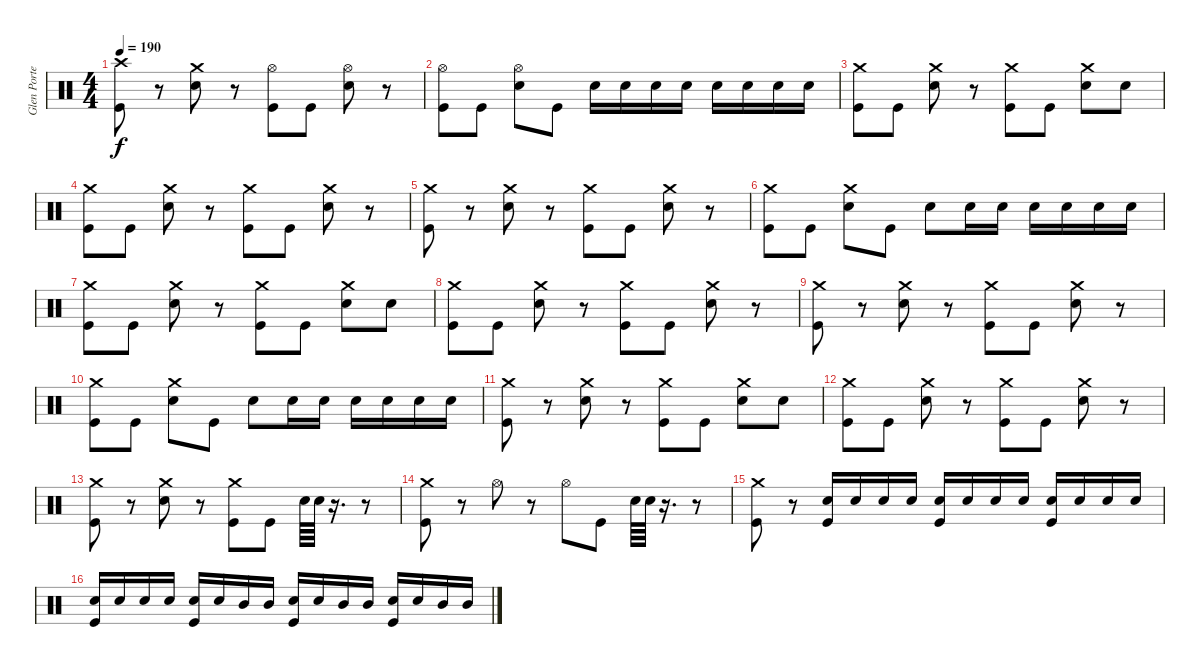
\track ("Glen Porter" "Glen Porte") {instrument percussion}
\staff {score}
\articulation defaults
\ts (4 4)
\tempo 190
\clef neutral
\ks c
("Crash high (hit)" "Kick (hit)").8{dy f} r.8 ("Crash medium (hit)" "Snare (hit) 2").8 r.8 ("Hi-Hat (open)" "Kick (hit)").8 "Kick (hit)".8 ("Hi-Hat (open)" "Snare (hit) 2").8 r.8 |
("Hi-Hat (open)" "Kick (hit)").8 "Kick (hit)".8 ("Hi-Hat (open)" "Snare (hit) 2").8 "Kick (hit)".8 "Snare (hit) 2".16 "Snare (hit) 2".16 "Snare (hit) 2".16 "Snare (hit) 2".16 "Snare (hit) 2".16 "Snare (hit) 2".16 "Snare (hit) 2".16 "Snare (hit) 2".16 |
("Crash medium (hit)" "Kick (hit)").8 "Kick (hit)".8 ("Crash medium (hit)" "Snare (hit) 2").8 r.8 ("Crash medium (hit)" "Kick (hit)").8 "Kick (hit)".8 ("Crash medium (hit)" "Snare (hit) 2").8 "Snare (hit) 2".8 |
("Crash medium (hit)" "Kick (hit)").8 "Kick (hit)".8 ("Crash medium (hit)" "Snare (hit) 2").8 r.8 ("Crash medium (hit)" "Kick (hit)").8 "Kick (hit)".8 ("Crash medium (hit)" "Snare (hit) 2").8 r.8 |
("Crash medium (hit)" "Kick (hit)").8 r.8 ("Crash medium (hit)" "Snare (hit) 2").8 r.8 ("Crash medium (hit)" "Kick (hit)").8 "Kick (hit)".8 ("Crash medium (hit)" "Snare (hit) 2").8 r.8 |
("Crash medium (hit)" "Kick (hit)").8 "Kick (hit)".8 ("Crash medium (hit)" "Snare (hit) 2").8 "Kick (hit)".8 "Snare (hit) 2".8 "Snare (hit) 2".16 "Snare (hit) 2".16 "Snare (hit) 2".16 "Snare (hit) 2".16 "Snare (hit) 2".16 "Snare (hit) 2".16 |
("Crash medium (hit)" "Kick (hit)").8 "Kick (hit)".8 ("Crash medium (hit)" "Snare (hit) 2").8 r.8 ("Crash medium (hit)" "Kick (hit)").8 "Kick (hit)".8 ("Crash medium (hit)" "Snare (hit) 2").8 "Snare (hit) 2".8 |
("Crash medium (hit)" "Kick (hit)").8 "Kick (hit)".8 ("Crash medium (hit)" "Snare (hit) 2").8 r.8 ("Crash medium (hit)" "Kick (hit)").8 "Kick (hit)".8 ("Crash medium (hit)" "Snare (hit) 2").8 r.8 |
("Crash medium (hit)" "Kick (hit)").8 r.8 ("Crash medium (hit)" "Snare (hit) 2").8 r.8 ("Crash medium (hit)" "Kick (hit)").8 "Kick (hit)".8 ("Crash medium (hit)" "Snare (hit) 2").8 r.8 |
("Crash medium (hit)" "Kick (hit)").8 "Kick (hit)".8 ("Crash medium (hit)" "Snare (hit) 2").8 "Kick (hit)".8 "Snare (hit) 2".8 "Snare (hit) 2".16 "Snare (hit) 2".16 "Snare (hit) 2".16 "Snare (hit) 2".16 "Snare (hit) 2".16 "Snare (hit) 2".16 |
("Crash medium (hit)" "Kick (hit)").8 r.8 ("Crash medium (hit)" "Snare (hit) 2").8 r.8 ("Crash medium (hit)" "Kick (hit)").8 "Kick (hit)".8 ("Crash medium (hit)" "Snare (hit) 2").8 "Snare (hit) 2".8 |
("Crash medium (hit)" "Kick (hit)").8 "Kick (hit)".8 ("Crash medium (hit)" "Snare (hit) 2").8 r.8 ("Crash medium (hit)" "Kick (hit)").8 "Kick (hit)".8 ("Crash medium (hit)" "Snare (hit) 2").8 r.8 |
("Crash medium (hit)" "Kick (hit)").8 r.8 ("Crash medium (hit)" "Snare (hit) 2").8 r.8 ("Crash medium (hit)" "Kick (hit)").8 "Kick (hit)".8 "Snare (hit) 2".64 "Snare (hit) 2".64 r.16{d} r.8 |
("Crash medium (hit)" "Kick (hit)").8 r.8 "Hi-Hat (open)".8 r.8 "Hi-Hat (open)".8 "Kick (hit)".8 "Snare (hit) 2".64 "Snare (hit) 2".64 r.16{d} r.8 |
("Crash medium (hit)" "Kick (hit)").8 r.8 ("Snare (hit) 2" "Kick (hit)").16 "Snare (hit) 2".16 "Snare (hit) 2".16 "Snare (hit) 2".16 ("Snare (hit) 2" "Kick (hit)").16 "Snare (hit) 2".16 "Snare (hit) 2".16 "Snare (hit) 2".16 ("Snare (hit) 2" "Kick (hit)").16 "Snare (hit) 2".16 "Snare (hit) 2".16 "Snare (hit) 2".16 |
("Snare (hit) 2" "Kick (hit)").16 "Snare (hit) 2".16 "Snare (hit) 2".16 "Snare (hit) 2".16 ("Snare (hit) 2" "Kick (hit)").16 "Snare (hit) 2".16 "Mid Tom (hit)".16 "Mid Tom (hit)".16 ("Snare (hit) 2" "Kick (hit)").16 "Snare (hit) 2".16 "Mid Tom (hit)".16 "Mid Tom (hit)".16 ("Snare (hit) 2" "Kick (hit)").16 "Snare (hit) 2".16 "Mid Tom (hit)".16 "Mid Tom (hit)".16
